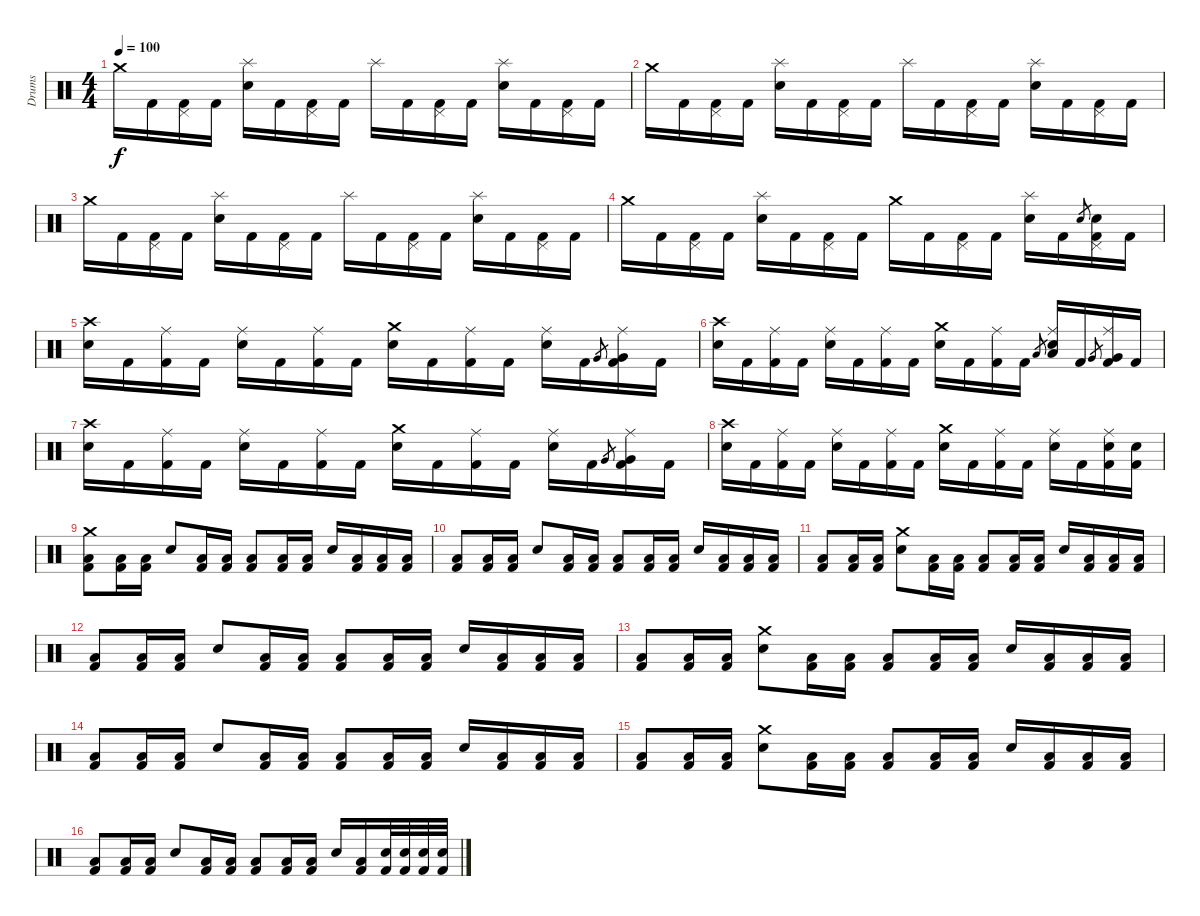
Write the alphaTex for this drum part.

\track ("Drums" "Drums") {instrument percussion}
\staff {score}
\articulation defaults
\ts (4 4)
\tempo 100
\clef neutral
\ks c "Crash medium (hit)".16{dy f} "Kick (hit) 2".16
("Pedal Hi-Hat (hit)" "Kick (hit) 2").16 "Kick (hit) 2".16 ("Splash (hit)" "Electric Snare (hit)").16 "Kick (hit) 2".16 ("Pedal Hi-Hat (hit)" "Kick (hit) 2").16 "Kick (hit) 2".16 "Splash (hit)".16 "Kick (hit) 2".16 ("Pedal Hi-Hat (hit)" "Kick (hit) 2").16 "Kick (hit) 2".16 ("Splash (hit)" "Electric Snare (hit)").16 "Kick (hit) 2".16 ("Pedal Hi-Hat (hit)" "Kick (hit) 2").16 "Kick (hit) 2".16 |
"Crash medium (hit)".16 "Kick (hit) 2".16 ("Pedal Hi-Hat (hit)" "Kick (hit) 2").16 "Kick (hit) 2".16 ("Splash (hit)" "Electric Snare (hit)").16 "Kick (hit) 2".16 ("Pedal Hi-Hat (hit)" "Kick (hit) 2").16 "Kick (hit) 2".16 "Splash (hit)".16 "Kick (hit) 2".16 ("Pedal Hi-Hat (hit)" "Kick (hit) 2").16 "Kick (hit) 2".16 ("Splash (hit)" "Electric Snare (hit)").16 "Kick (hit) 2".16 ("Pedal Hi-Hat (hit)" "Kick (hit) 2").16 "Kick (hit) 2".16 |
"Crash medium (hit)".16 "Kick (hit) 2".16 ("Pedal Hi-Hat (hit)" "Kick (hit) 2").16 "Kick (hit) 2".16 ("Splash (hit)" "Electric Snare (hit)").16 "Kick (hit) 2".16 ("Pedal Hi-Hat (hit)" "Kick (hit) 2").16 "Kick (hit) 2".16 "Splash (hit)".16 "Kick (hit) 2".16 ("Pedal Hi-Hat (hit)" "Kick (hit) 2").16 "Kick (hit) 2".16 ("Splash (hit)" "Electric Snare (hit)").16 "Kick (hit) 2".16 ("Pedal Hi-Hat (hit)" "Kick (hit) 2").16 "Kick (hit) 2".16 |
"Crash medium (hit)".16 "Kick (hit) 2".16 ("Pedal Hi-Hat (hit)" "Kick (hit) 2").16 "Kick (hit) 2".16 ("Splash (hit)" "Electric Snare (hit)").16 "Kick (hit) 2".16 ("Pedal Hi-Hat (hit)" "Kick (hit) 2").16 "Kick (hit) 2".16 "Crash medium (hit)".16 "Kick (hit) 2".16 ("Pedal Hi-Hat (hit)" "Kick (hit) 2").16 "Kick (hit) 2".16 ("Splash (hit)" "Electric Snare (hit)").16 "Kick (hit) 2".16 "Electric Snare (hit)".8{gr} ("Pedal Hi-Hat (hit)" "Electric Snare (hit)" "Kick (hit) 2").16 "Kick (hit) 2".16 |
("Crash high (hit)" "Electric Snare (hit)").16 "Kick (hit) 2".16 ("Ride (middle)" "Kick (hit) 2").16 "Kick (hit) 2".16 ("Ride (middle)" "Electric Snare (hit)").16 "Kick (hit) 2".16 ("Ride (middle)" "Kick (hit) 2").16 "Kick (hit) 2".16 ("Crash medium (hit)" "Electric Snare (hit)").16 "Kick (hit) 2".16 ("Ride (middle)" "Kick (hit) 2").16 "Kick (hit) 2".16 ("Ride (middle)" "Electric Snare (hit)").16 "Kick (hit) 2".16 "Very Low Tom (hit)".8{gr} ("Ride (middle)" "Very Low Tom (hit)" "Kick (hit) 2").16 "Kick (hit) 2".16 |
("Crash high (hit)" "Electric Snare (hit)").16 "Kick (hit) 2".16 ("Ride (middle)" "Kick (hit) 2").16 "Kick (hit) 2".16 ("Ride (middle)" "Electric Snare (hit)").16 "Kick (hit) 2".16 ("Ride (middle)" "Kick (hit) 2").16 "Kick (hit) 2".16 ("Crash medium (hit)" "Electric Snare (hit)").16 "Kick (hit) 2".16 ("Ride (middle)" "Kick (hit) 2").16 "Kick (hit) 2".16 "Low Tom (hit)".8{gr} ("Ride (middle)" "Low Tom (hit)" "Electric Snare (hit)").16 "Kick (hit) 2".16 "Very Low Tom (hit)".8{gr} ("Ride (middle)" "Very Low Tom (hit)" "Kick (hit) 2").16 "Kick (hit) 2".16 |
("Crash high (hit)" "Electric Snare (hit)").16 "Kick (hit) 2".16 ("Ride (middle)" "Kick (hit) 2").16 "Kick (hit) 2".16 ("Ride (middle)" "Electric Snare (hit)").16 "Kick (hit) 2".16 ("Ride (middle)" "Kick (hit) 2").16 "Kick (hit) 2".16 ("Crash medium (hit)" "Electric Snare (hit)").16 "Kick (hit) 2".16 ("Ride (middle)" "Kick (hit) 2").16 "Kick (hit) 2".16 ("Ride (middle)" "Electric Snare (hit)").16 "Kick (hit) 2".16 "Very Low Tom (hit)".8{gr} ("Ride (middle)" "Very Low Tom (hit)" "Kick (hit) 2").16 "Kick (hit) 2".16 |
("Crash high (hit)" "Electric Snare (hit)").16 "Kick (hit) 2".16 ("Ride (middle)" "Kick (hit) 2").16 "Kick (hit) 2".16 ("Ride (middle)" "Electric Snare (hit)").16 "Kick (hit) 2".16 ("Ride (middle)" "Kick (hit) 2").16 "Kick (hit) 2".16 ("Crash medium (hit)" "Electric Snare (hit)").16 "Kick (hit) 2".16 ("Ride (middle)" "Kick (hit) 2").16 "Kick (hit) 2".16 ("Ride (middle)" "Electric Snare (hit)").16 "Kick (hit) 2".16 ("Ride (middle)" "Electric Snare (hit)" "Kick (hit) 2").16 ("Electric Snare (hit)" "Kick (hit) 2").16 |
("Crash medium (hit)" "Low Floor Tom (hit)" "Kick (hit) 2").8 ("Low Floor Tom (hit)" "Kick (hit) 2").16 ("Low Floor Tom (hit)" "Kick (hit) 2").16 "Electric Snare (hit)".8 ("Low Floor Tom (hit)" "Kick (hit) 2").16 ("Low Floor Tom (hit)" "Kick (hit) 2").16 ("Low Floor Tom (hit)" "Kick (hit) 2").8 ("Low Floor Tom (hit)" "Kick (hit) 2").16 ("Low Floor Tom (hit)" "Kick (hit) 2").16 "Electric Snare (hit)".16 ("Low Floor Tom (hit)" "Kick (hit) 2").16 ("Low Floor Tom (hit)" "Kick (hit) 2").16 ("Low Floor Tom (hit)" "Kick (hit) 2").16 |
("Low Floor Tom (hit)" "Kick (hit) 2").8 ("Low Floor Tom (hit)" "Kick (hit) 2").16 ("Low Floor Tom (hit)" "Kick (hit) 2").16 "Electric Snare (hit)".8 ("Low Floor Tom (hit)" "Kick (hit) 2").16 ("Low Floor Tom (hit)" "Kick (hit) 2").16 ("Low Floor Tom (hit)" "Kick (hit) 2").8 ("Low Floor Tom (hit)" "Kick (hit) 2").16 ("Low Floor Tom (hit)" "Kick (hit) 2").16 "Electric Snare (hit)".16 ("Low Floor Tom (hit)" "Kick (hit) 2").16 ("Low Floor Tom (hit)" "Kick (hit) 2").16 ("Low Floor Tom (hit)" "Kick (hit) 2").16 |
("Low Floor Tom (hit)" "Kick (hit) 2").8 ("Low Floor Tom (hit)" "Kick (hit) 2").16 ("Low Floor Tom (hit)" "Kick (hit) 2").16 ("Crash medium (hit)" "Electric Snare (hit)").8 ("Low Floor Tom (hit)" "Kick (hit) 2").16 ("Low Floor Tom (hit)" "Kick (hit) 2").16 ("Low Floor Tom (hit)" "Kick (hit) 2").8 ("Low Floor Tom (hit)" "Kick (hit) 2").16 ("Low Floor Tom (hit)" "Kick (hit) 2").16 "Electric Snare (hit)".16 ("Low Floor Tom (hit)" "Kick (hit) 2").16 ("Low Floor Tom (hit)" "Kick (hit) 2").16 ("Low Floor Tom (hit)" "Kick (hit) 2").16 |
("Low Floor Tom (hit)" "Kick (hit) 2").8 ("Low Floor Tom (hit)" "Kick (hit) 2").16 ("Low Floor Tom (hit)" "Kick (hit) 2").16 "Electric Snare (hit)".8 ("Low Floor Tom (hit)" "Kick (hit) 2").16 ("Low Floor Tom (hit)" "Kick (hit) 2").16 ("Low Floor Tom (hit)" "Kick (hit) 2").8 ("Low Floor Tom (hit)" "Kick (hit) 2").16 ("Low Floor Tom (hit)" "Kick (hit) 2").16 "Electric Snare (hit)".16 ("Low Floor Tom (hit)" "Kick (hit) 2").16 ("Low Floor Tom (hit)" "Kick (hit) 2").16 ("Low Floor Tom (hit)" "Kick (hit) 2").16 |
("Low Floor Tom (hit)" "Kick (hit) 2").8 ("Low Floor Tom (hit)" "Kick (hit) 2").16 ("Low Floor Tom (hit)" "Kick (hit) 2").16 ("Crash medium (hit)" "Electric Snare (hit)").8 ("Low Floor Tom (hit)" "Kick (hit) 2").16 ("Low Floor Tom (hit)" "Kick (hit) 2").16 ("Low Floor Tom (hit)" "Kick (hit) 2").8 ("Low Floor Tom (hit)" "Kick (hit) 2").16 ("Low Floor Tom (hit)" "Kick (hit) 2").16 "Electric Snare (hit)".16 ("Low Floor Tom (hit)" "Kick (hit) 2").16 ("Low Floor Tom (hit)" "Kick (hit) 2").16 ("Low Floor Tom (hit)" "Kick (hit) 2").16 |
("Low Floor Tom (hit)" "Kick (hit) 2").8 ("Low Floor Tom (hit)" "Kick (hit) 2").16 ("Low Floor Tom (hit)" "Kick (hit) 2").16 "Electric Snare (hit)".8 ("Low Floor Tom (hit)" "Kick (hit) 2").16 ("Low Floor Tom (hit)" "Kick (hit) 2").16 ("Low Floor Tom (hit)" "Kick (hit) 2").8 ("Low Floor Tom (hit)" "Kick (hit) 2").16 ("Low Floor Tom (hit)" "Kick (hit) 2").16 "Electric Snare (hit)".16 ("Low Floor Tom (hit)" "Kick (hit) 2").16 ("Low Floor Tom (hit)" "Kick (hit) 2").16 ("Low Floor Tom (hit)" "Kick (hit) 2").16 |
("Low Floor Tom (hit)" "Kick (hit) 2").8 ("Low Floor Tom (hit)" "Kick (hit) 2").16 ("Low Floor Tom (hit)" "Kick (hit) 2").16 ("Crash medium (hit)" "Electric Snare (hit)").8 ("Low Floor Tom (hit)" "Kick (hit) 2").16 ("Low Floor Tom (hit)" "Kick (hit) 2").16 ("Low Floor Tom (hit)" "Kick (hit) 2").8 ("Low Floor Tom (hit)" "Kick (hit) 2").16 ("Low Floor Tom (hit)" "Kick (hit) 2").16 "Electric Snare (hit)".16 ("Low Floor Tom (hit)" "Kick (hit) 2").16 ("Low Floor Tom (hit)" "Kick (hit) 2").16 ("Low Floor Tom (hit)" "Kick (hit) 2").16 |
("Low Floor Tom (hit)" "Kick (hit) 2").8 ("Low Floor Tom (hit)" "Kick (hit) 2").16 ("Low Floor Tom (hit)" "Kick (hit) 2").16 "Electric Snare (hit)".8 ("Low Floor Tom (hit)" "Kick (hit) 2").16 ("Low Floor Tom (hit)" "Kick (hit) 2").16 ("Low Floor Tom (hit)" "Kick (hit) 2").8 ("Low Floor Tom (hit)" "Kick (hit) 2").16 ("Low Floor Tom (hit)" "Kick (hit) 2").16 "Electric Snare (hit)".16 ("Low Floor Tom (hit)" "Kick (hit) 2").16 ("Electric Snare (hit)" "Kick (hit) 2").32 ("Electric Snare (hit)" "Kick (hit) 2").32 ("Electric Snare (hit)" "Kick (hit) 2").32 ("Electric Snare (hit)" "Kick (hit) 2").32
